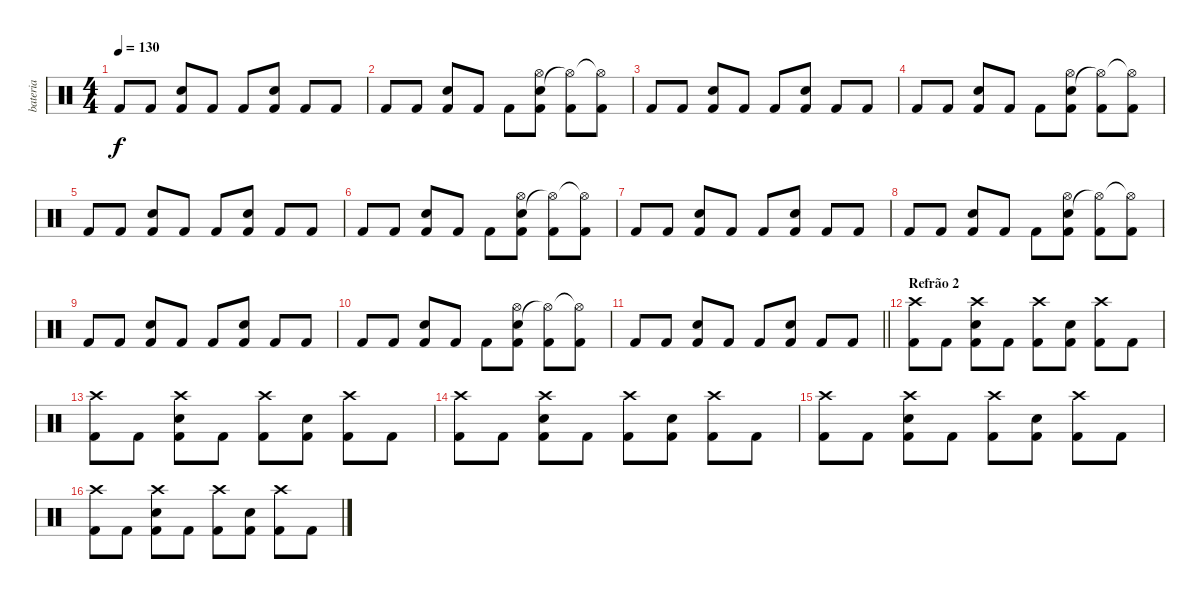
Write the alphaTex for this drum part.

\track ("bateria" "bateria") {instrument percussion}
\staff {score}
\articulation defaults
\ts (4 4)
\tempo 130
\clef neutral
\ks c "Kick (hit) 2".8{dy f} "Kick (hit) 2".8
("Kick (hit) 2" "Electric Snare (hit)").8 "Kick (hit) 2".8 "Kick (hit) 2".8 ("Kick (hit) 2" "Electric Snare (hit)").8 "Kick (hit) 2".8 "Kick (hit) 2".8 |
"Kick (hit) 2".8 "Kick (hit) 2".8 ("Kick (hit) 2" "Electric Snare (hit)").8 "Kick (hit) 2".8 "Kick (hit) 2".8 ("Kick (hit) 2" "Electric Snare (hit)" "Hi-Hat (open)").8 ("Kick (hit) 2" "Hi-Hat (open)"{t}).8 ("Kick (hit) 2" "Hi-Hat (open)"{t}).8 |
"Kick (hit) 2".8 "Kick (hit) 2".8 ("Kick (hit) 2" "Electric Snare (hit)").8 "Kick (hit) 2".8 "Kick (hit) 2".8 ("Kick (hit) 2" "Electric Snare (hit)").8 "Kick (hit) 2".8 "Kick (hit) 2".8 |
"Kick (hit) 2".8 "Kick (hit) 2".8 ("Kick (hit) 2" "Electric Snare (hit)").8 "Kick (hit) 2".8 "Kick (hit) 2".8 ("Kick (hit) 2" "Electric Snare (hit)" "Hi-Hat (open)").8 ("Kick (hit) 2" "Hi-Hat (open)"{t}).8 ("Kick (hit) 2" "Hi-Hat (open)"{t}).8 |
"Kick (hit) 2".8 "Kick (hit) 2".8 ("Kick (hit) 2" "Electric Snare (hit)").8 "Kick (hit) 2".8 "Kick (hit) 2".8 ("Kick (hit) 2" "Electric Snare (hit)").8 "Kick (hit) 2".8 "Kick (hit) 2".8 |
"Kick (hit) 2".8 "Kick (hit) 2".8 ("Kick (hit) 2" "Electric Snare (hit)").8 "Kick (hit) 2".8 "Kick (hit) 2".8 ("Kick (hit) 2" "Electric Snare (hit)" "Hi-Hat (open)").8 ("Kick (hit) 2" "Hi-Hat (open)"{t}).8 ("Kick (hit) 2" "Hi-Hat (open)"{t}).8 |
"Kick (hit) 2".8 "Kick (hit) 2".8 ("Kick (hit) 2" "Electric Snare (hit)").8 "Kick (hit) 2".8 "Kick (hit) 2".8 ("Kick (hit) 2" "Electric Snare (hit)").8 "Kick (hit) 2".8 "Kick (hit) 2".8 |
"Kick (hit) 2".8 "Kick (hit) 2".8 ("Kick (hit) 2" "Electric Snare (hit)").8 "Kick (hit) 2".8 "Kick (hit) 2".8 ("Kick (hit) 2" "Electric Snare (hit)" "Hi-Hat (open)").8 ("Kick (hit) 2" "Hi-Hat (open)"{t}).8 ("Kick (hit) 2" "Hi-Hat (open)"{t}).8 |
"Kick (hit) 2".8 "Kick (hit) 2".8 ("Kick (hit) 2" "Electric Snare (hit)").8 "Kick (hit) 2".8 "Kick (hit) 2".8 ("Kick (hit) 2" "Electric Snare (hit)").8 "Kick (hit) 2".8 "Kick (hit) 2".8 |
"Kick (hit) 2".8 "Kick (hit) 2".8 ("Kick (hit) 2" "Electric Snare (hit)").8 "Kick (hit) 2".8 "Kick (hit) 2".8 ("Kick (hit) 2" "Electric Snare (hit)" "Hi-Hat (open)").8 ("Kick (hit) 2" "Hi-Hat (open)"{t}).8 ("Kick (hit) 2" "Hi-Hat (open)"{t}).8 |
\barLineRight lightlight "Kick (hit) 2".8 "Kick (hit) 2".8
("Kick (hit) 2" "Electric Snare (hit)").8 "Kick (hit) 2".8 "Kick (hit) 2".8 ("Kick (hit) 2" "Electric Snare (hit)").8 "Kick (hit) 2".8 "Kick (hit) 2".8 |
\section ("" "Refrão 2")
("Crash high (hit)" "Kick (hit) 2").8 "Kick (hit) 2".8 ("Crash high (hit)" "Kick (hit) 2" "Electric Snare (hit)").8 "Kick (hit) 2".8 ("Crash high (hit)" "Kick (hit) 2").8 ("Kick (hit) 2" "Electric Snare (hit)").8 ("Crash high (hit)" "Kick (hit) 2").8 "Kick (hit) 2".8 |
("Crash high (hit)" "Kick (hit) 2").8 "Kick (hit) 2".8 ("Crash high (hit)" "Kick (hit) 2" "Electric Snare (hit)").8 "Kick (hit) 2".8 ("Crash high (hit)" "Kick (hit) 2").8 ("Kick (hit) 2" "Electric Snare (hit)").8 ("Crash high (hit)" "Kick (hit) 2").8 "Kick (hit) 2".8 |
("Crash high (hit)" "Kick (hit) 2").8 "Kick (hit) 2".8 ("Crash high (hit)" "Kick (hit) 2" "Electric Snare (hit)").8 "Kick (hit) 2".8 ("Crash high (hit)" "Kick (hit) 2").8 ("Kick (hit) 2" "Electric Snare (hit)").8 ("Crash high (hit)" "Kick (hit) 2").8 "Kick (hit) 2".8 |
("Crash high (hit)" "Kick (hit) 2").8 "Kick (hit) 2".8 ("Crash high (hit)" "Kick (hit) 2" "Electric Snare (hit)").8 "Kick (hit) 2".8 ("Crash high (hit)" "Kick (hit) 2").8 ("Kick (hit) 2" "Electric Snare (hit)").8 ("Crash high (hit)" "Kick (hit) 2").8 "Kick (hit) 2".8 |
("Crash high (hit)" "Kick (hit) 2").8 "Kick (hit) 2".8 ("Crash high (hit)" "Kick (hit) 2" "Electric Snare (hit)").8 "Kick (hit) 2".8 ("Crash high (hit)" "Kick (hit) 2").8 ("Kick (hit) 2" "Electric Snare (hit)").8 ("Crash high (hit)" "Kick (hit) 2").8 "Kick (hit) 2".8
